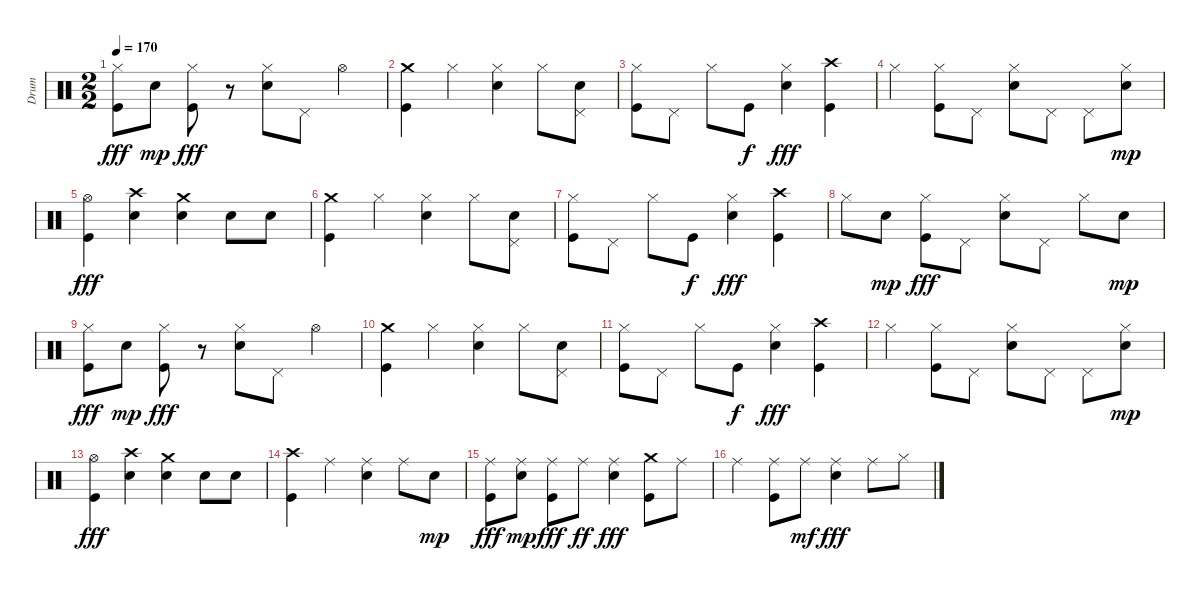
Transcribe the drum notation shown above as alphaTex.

\track ("Drum" "Drum") {instrument percussion}
\staff {score}
\articulation defaults
\ts (2 2)
\tempo 170
\clef neutral
\ks c
("Hi-Hat (closed)" "Kick (hit)").8{dy fff} "Electric Snare (hit)".8{dy mp} ("Hi-Hat (closed)" "Kick (hit)").8{dy fff} r.8 ("Hi-Hat (closed)" "Electric Snare (hit)").8 "Pedal Hi-Hat (hit)".8 "Hi-Hat (open)".4 |
("Crash medium (hit)" "Kick (hit)").4 "Hi-Hat (closed)".4 ("Hi-Hat (closed)" "Electric Snare (hit)").4 "Hi-Hat (closed)".8 ("Pedal Hi-Hat (hit)" "Electric Snare (hit)").8 |
("Hi-Hat (closed)" "Kick (hit)").8 "Pedal Hi-Hat (hit)".8 "Hi-Hat (closed)".8 "Kick (hit)".8{dy f} ("Hi-Hat (closed)" "Electric Snare (hit)").4{dy fff} ("Crash high (hit)" "Kick (hit)").4 |
"Hi-Hat (closed)".4 ("Kick (hit)" "Hi-Hat (closed)").8 "Pedal Hi-Hat (hit)".8 ("Electric Snare (hit)" "Hi-Hat (closed)").8 "Pedal Hi-Hat (hit)".8 "Pedal Hi-Hat (hit)".8 ("Hi-Hat (closed)" "Electric Snare (hit)").8{dy mp} |
("Kick (hit)" "Hi-Hat (open)").4{dy fff} ("Crash high (hit)" "Electric Snare (hit)").4 ("Crash medium (hit)" "Electric Snare (hit)").4 "Electric Snare (hit)".8 "Electric Snare (hit)".8 |
("Crash medium (hit)" "Kick (hit)").4 "Hi-Hat (closed)".4 ("Hi-Hat (closed)" "Electric Snare (hit)").4 "Hi-Hat (closed)".8 ("Pedal Hi-Hat (hit)" "Electric Snare (hit)").8 |
("Hi-Hat (closed)" "Kick (hit)").8 "Pedal Hi-Hat (hit)".8 "Hi-Hat (closed)".8 "Kick (hit)".8{dy f} ("Hi-Hat (closed)" "Electric Snare (hit)").4{dy fff} ("Crash high (hit)" "Kick (hit)").4 |
"Hi-Hat (closed)".8 "Electric Snare (hit)".8{dy mp} ("Kick (hit)" "Hi-Hat (closed)").8{dy fff} "Pedal Hi-Hat (hit)".8 ("Electric Snare (hit)" "Hi-Hat (closed)").8 "Pedal Hi-Hat (hit)".8 "Hi-Hat (closed)".8 "Electric Snare (hit)".8{dy mp} |
("Hi-Hat (closed)" "Kick (hit)").8{dy fff} "Electric Snare (hit)".8{dy mp} ("Hi-Hat (closed)" "Kick (hit)").8{dy fff} r.8 ("Hi-Hat (closed)" "Electric Snare (hit)").8 "Pedal Hi-Hat (hit)".8 "Hi-Hat (open)".4 |
("Crash medium (hit)" "Kick (hit)").4 "Hi-Hat (closed)".4 ("Hi-Hat (closed)" "Electric Snare (hit)").4 "Hi-Hat (closed)".8 ("Pedal Hi-Hat (hit)" "Electric Snare (hit)").8 |
("Hi-Hat (closed)" "Kick (hit)").8 "Pedal Hi-Hat (hit)".8 "Hi-Hat (closed)".8 "Kick (hit)".8{dy f} ("Hi-Hat (closed)" "Electric Snare (hit)").4{dy fff} ("Crash high (hit)" "Kick (hit)").4 |
"Hi-Hat (closed)".4 ("Kick (hit)" "Hi-Hat (closed)").8 "Pedal Hi-Hat (hit)".8 ("Electric Snare (hit)" "Hi-Hat (closed)").8 "Pedal Hi-Hat (hit)".8 "Pedal Hi-Hat (hit)".8 ("Hi-Hat (closed)" "Electric Snare (hit)").8{dy mp} |
("Kick (hit)" "Hi-Hat (open)").4{dy fff} ("Crash high (hit)" "Electric Snare (hit)").4 ("Crash medium (hit)" "Electric Snare (hit)").4 "Electric Snare (hit)".8 "Electric Snare (hit)".8 |
("Crash high (hit)" "Kick (hit)").4 "Ride (middle)".4 ("Ride (middle)" "Electric Snare (hit)").4 "Ride (middle)".8 "Electric Snare (hit)".8{dy mp} |
("Ride (middle)" "Kick (hit)").8{dy fff} ("Ride (middle)" "Electric Snare (hit)").8{dy mp} ("Ride (middle)" "Kick (hit)").8{dy fff} "Ride (middle)".8{dy ff} ("Ride (middle)" "Electric Snare (hit)").4{dy fff} ("Crash medium (hit)" "Kick (hit)").8 "Ride (middle)".8 |
"Ride (middle)".4 ("Ride (middle)" "Kick (hit)").8 "Ride (middle)".8{dy mf} ("Ride (middle)" "Electric Snare (hit)").4{dy fff} "Ride (middle)".8 "Hi-Hat (closed)".8
